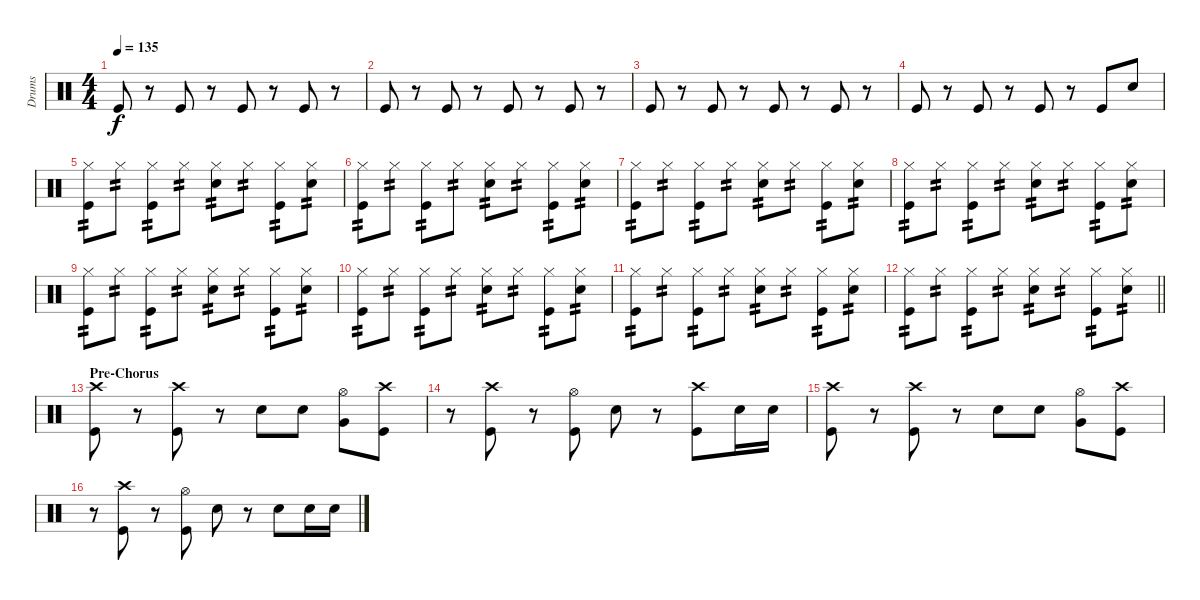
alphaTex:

\track ("Drums" "Drums") {instrument percussion}
\staff {score}
\articulation defaults
\ts (4 4)
\tempo 135
\clef neutral
\ks c "Kick (hit)".8{dy f}
r.8 "Kick (hit)".8 r.8 "Kick (hit)".8 r.8 "Kick (hit)".8 r.8 |
"Kick (hit)".8 r.8 "Kick (hit)".8 r.8 "Kick (hit)".8 r.8 "Kick (hit)".8 r.8 |
"Kick (hit)".8 r.8 "Kick (hit)".8 r.8 "Kick (hit)".8 r.8 "Kick (hit)".8 r.8 |
"Kick (hit)".8 r.8 "Kick (hit)".8 r.8 "Kick (hit)".8 r.8 "Kick (hit)".8 "Electric Snare (hit)".8 |
("Hi-Hat (closed)" "Kick (hit)").8{tp 2} "Hi-Hat (closed)".8{tp 2} ("Hi-Hat (closed)" "Kick (hit)").8{tp 2} "Hi-Hat (closed)".8{tp 2} ("Hi-Hat (closed)" "Electric Snare (hit)").8{tp 2} "Hi-Hat (closed)".8{tp 2} ("Hi-Hat (closed)" "Kick (hit)").8{tp 2} ("Hi-Hat (closed)" "Electric Snare (hit)").8{tp 2} |
("Hi-Hat (closed)" "Kick (hit)").8{tp 2} "Hi-Hat (closed)".8{tp 2} ("Hi-Hat (closed)" "Kick (hit)").8{tp 2} "Hi-Hat (closed)".8{tp 2} ("Hi-Hat (closed)" "Electric Snare (hit)").8{tp 2} "Hi-Hat (closed)".8{tp 2} ("Hi-Hat (closed)" "Kick (hit)").8{tp 2} ("Hi-Hat (closed)" "Electric Snare (hit)").8{tp 2} |
("Hi-Hat (closed)" "Kick (hit)").8{tp 2} "Hi-Hat (closed)".8{tp 2} ("Hi-Hat (closed)" "Kick (hit)").8{tp 2} "Hi-Hat (closed)".8{tp 2} ("Hi-Hat (closed)" "Electric Snare (hit)").8{tp 2} "Hi-Hat (closed)".8{tp 2} ("Hi-Hat (closed)" "Kick (hit)").8{tp 2} ("Hi-Hat (closed)" "Electric Snare (hit)").8{tp 2} |
("Hi-Hat (closed)" "Kick (hit)").8{tp 2} "Hi-Hat (closed)".8{tp 2} ("Hi-Hat (closed)" "Kick (hit)").8{tp 2} "Hi-Hat (closed)".8{tp 2} ("Hi-Hat (closed)" "Electric Snare (hit)").8{tp 2} "Hi-Hat (closed)".8{tp 2} ("Hi-Hat (closed)" "Kick (hit)").8{tp 2} ("Hi-Hat (closed)" "Electric Snare (hit)").8{tp 2} |
("Hi-Hat (closed)" "Kick (hit)").8{tp 2} "Hi-Hat (closed)".8{tp 2} ("Hi-Hat (closed)" "Kick (hit)").8{tp 2} "Hi-Hat (closed)".8{tp 2} ("Hi-Hat (closed)" "Electric Snare (hit)").8{tp 2} "Hi-Hat (closed)".8{tp 2} ("Hi-Hat (closed)" "Kick (hit)").8{tp 2} ("Hi-Hat (closed)" "Electric Snare (hit)").8{tp 2} |
("Hi-Hat (closed)" "Kick (hit)").8{tp 2} "Hi-Hat (closed)".8{tp 2} ("Hi-Hat (closed)" "Kick (hit)").8{tp 2} "Hi-Hat (closed)".8{tp 2} ("Hi-Hat (closed)" "Electric Snare (hit)").8{tp 2} "Hi-Hat (closed)".8{tp 2} ("Hi-Hat (closed)" "Kick (hit)").8{tp 2} ("Hi-Hat (closed)" "Electric Snare (hit)").8{tp 2} |
("Hi-Hat (closed)" "Kick (hit)").8{tp 2} "Hi-Hat (closed)".8{tp 2} ("Hi-Hat (closed)" "Kick (hit)").8{tp 2} "Hi-Hat (closed)".8{tp 2} ("Hi-Hat (closed)" "Electric Snare (hit)").8{tp 2} "Hi-Hat (closed)".8{tp 2} ("Hi-Hat (closed)" "Kick (hit)").8{tp 2} ("Hi-Hat (closed)" "Electric Snare (hit)").8{tp 2} |
\barLineRight lightlight
("Hi-Hat (closed)" "Kick (hit)").8{tp 2} "Hi-Hat (closed)".8{tp 2} ("Hi-Hat (closed)" "Kick (hit)").8{tp 2} "Hi-Hat (closed)".8{tp 2} ("Hi-Hat (closed)" "Electric Snare (hit)").8{tp 2} "Hi-Hat (closed)".8{tp 2} ("Hi-Hat (closed)" "Kick (hit)").8{tp 2} ("Hi-Hat (closed)" "Electric Snare (hit)").8{tp 2} |
\section ("" "Pre-Chorus")
("Crash high (hit)" "Kick (hit)").8 r.8 ("Crash high (hit)" "Kick (hit)").8 r.8 "Electric Snare (hit)".8 "Electric Snare (hit)".8 ("Hi-Hat (open)" "Very Low Tom (hit)").8 ("Crash high (hit)" "Kick (hit)").8 |
r.8 ("Crash high (hit)" "Kick (hit)").8 r.8 ("Hi-Hat (open)" "Kick (hit)").8 "Electric Snare (hit)".8 r.8 ("Crash high (hit)" "Kick (hit)").8 "Electric Snare (hit)".16 "Electric Snare (hit)".16 |
("Crash high (hit)" "Kick (hit)").8 r.8 ("Crash high (hit)" "Kick (hit)").8 r.8 "Electric Snare (hit)".8 "Electric Snare (hit)".8 ("Hi-Hat (open)" "Very Low Tom (hit)").8 ("Crash high (hit)" "Kick (hit)").8 |
r.8 ("Crash high (hit)" "Kick (hit)").8 r.8 ("Hi-Hat (open)" "Kick (hit)").8 "Electric Snare (hit)".8 r.8 "Electric Snare (hit)".8 "Electric Snare (hit)".16 "Electric Snare (hit)".16
